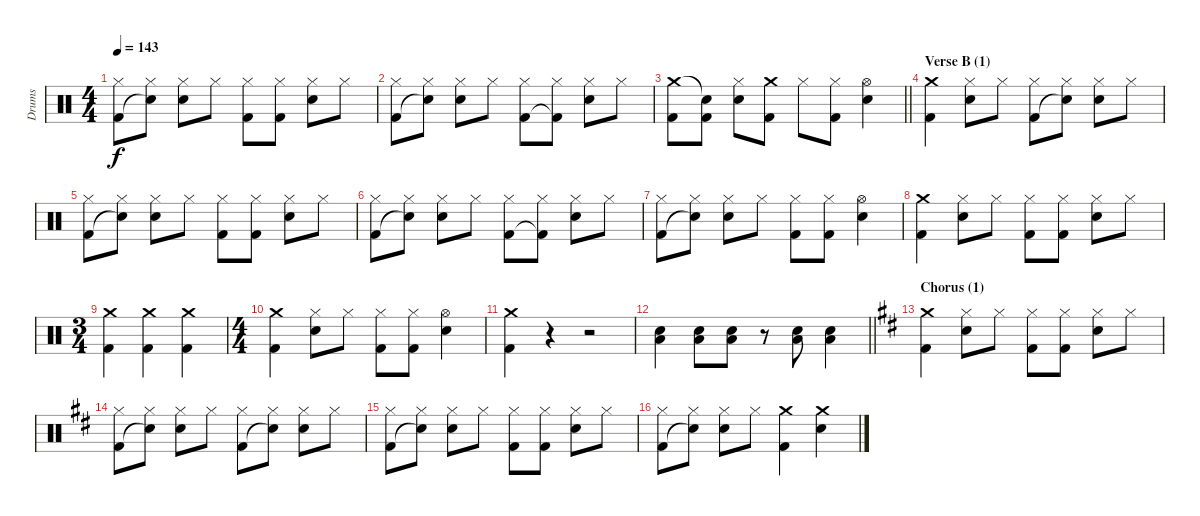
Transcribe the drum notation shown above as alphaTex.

\track ("Drums" "Drums") {instrument percussion}
\staff {score}
\articulation defaults
\ts (4 4)
\tempo 143
\clef neutral
\ks aminor
("Hi-Hat (closed)" "Kick (hit) 2").8{dy f} ("Hi-Hat (closed)" "Snare (hit)"{t}).8 ("Hi-Hat (closed)" "Electric Snare (hit)").8 "Hi-Hat (closed)".8 ("Hi-Hat (closed)" "Kick (hit) 2").8 ("Hi-Hat (closed)" "Kick (hit) 2").8 ("Hi-Hat (closed)" "Electric Snare (hit)").8 "Hi-Hat (closed)".8 |
("Hi-Hat (closed)" "Kick (hit) 2").8 ("Hi-Hat (closed)" "Snare (hit)"{t}).8 ("Hi-Hat (closed)" "Electric Snare (hit)").8 "Hi-Hat (closed)".8 ("Hi-Hat (closed)" "Kick (hit) 2").8 ("Hi-Hat (closed)" "Kick (hit) 2"{t}).8 ("Hi-Hat (closed)" "Electric Snare (hit)").8 "Hi-Hat (closed)".8 |
\barLineRight lightlight
("Crash medium (hit)" "Kick (hit) 2").8 ("Snare (hit)"{t} "Kick (hit) 2").8 ("Hi-Hat (closed)" "Electric Snare (hit)").8 ("Crash medium (hit)" "Kick (hit) 2").8 "Hi-Hat (closed)".8 ("Hi-Hat (closed)" "Kick (hit) 2").8 ("Hi-Hat (open)" "Electric Snare (hit)").4 |
\section ("" "Verse B (1)")
("Crash medium (hit)" "Kick (hit) 2").4 ("Hi-Hat (closed)" "Electric Snare (hit)").8 "Hi-Hat (closed)".8 ("Hi-Hat (closed)" "Kick (hit) 2").8 ("Hi-Hat (closed)" "Snare (hit)"{t}).8 ("Hi-Hat (closed)" "Electric Snare (hit)").8 "Hi-Hat (closed)".8 |
("Hi-Hat (closed)" "Kick (hit) 2").8 ("Hi-Hat (closed)" "Snare (hit)"{t}).8 ("Hi-Hat (closed)" "Electric Snare (hit)").8 "Hi-Hat (closed)".8 ("Hi-Hat (closed)" "Kick (hit) 2").8 ("Hi-Hat (closed)" "Kick (hit) 2").8 ("Hi-Hat (closed)" "Electric Snare (hit)").8 "Hi-Hat (closed)".8 |
("Hi-Hat (closed)" "Kick (hit) 2").8 ("Hi-Hat (closed)" "Snare (hit)"{t}).8 ("Hi-Hat (closed)" "Electric Snare (hit)").8 "Hi-Hat (closed)".8 ("Hi-Hat (closed)" "Kick (hit) 2").8 ("Hi-Hat (closed)" "Kick (hit) 2"{t}).8 ("Hi-Hat (closed)" "Electric Snare (hit)").8 "Hi-Hat (closed)".8 |
("Hi-Hat (closed)" "Kick (hit) 2").8 ("Hi-Hat (closed)" "Snare (hit)"{t}).8 ("Hi-Hat (closed)" "Electric Snare (hit)").8 "Hi-Hat (closed)".8 ("Hi-Hat (closed)" "Kick (hit) 2").8 ("Hi-Hat (closed)" "Kick (hit) 2").8 ("Hi-Hat (open)" "Electric Snare (hit)").4 |
("Crash medium (hit)" "Kick (hit) 2").4 ("Hi-Hat (closed)" "Electric Snare (hit)").8 "Hi-Hat (closed)".8 ("Hi-Hat (closed)" "Kick (hit) 2").8 ("Hi-Hat (closed)" "Kick (hit) 2").8 ("Hi-Hat (closed)" "Electric Snare (hit)").8 "Hi-Hat (closed)".8 |
\ts (3 4)
("Crash medium (hit)" "Kick (hit) 2").4 ("Crash medium (hit)" "Kick (hit) 2").4 ("Crash medium (hit)" "Kick (hit) 2").4 |
\ts (4 4)
("Crash medium (hit)" "Kick (hit) 2").4 ("Hi-Hat (closed)" "Electric Snare (hit)").8 "Hi-Hat (closed)".8 ("Hi-Hat (closed)" "Kick (hit) 2").8 ("Hi-Hat (closed)" "Kick (hit) 2").8 ("Hi-Hat (open)" "Electric Snare (hit)").4 |
("Crash medium (hit)" "Kick (hit) 2").4 r.4 r.2 |
\barLineRight lightlight
("Electric Snare (hit)" "Low Floor Tom (hit)").4 ("Electric Snare (hit)" "Low Floor Tom (hit)").8 ("Electric Snare (hit)" "Low Floor Tom (hit)").8 r.8 ("Electric Snare (hit)" "Low Floor Tom (hit)").8 ("Electric Snare (hit)" "Low Floor Tom (hit)").4 |
\section ("" "Chorus (1)")
\ks d
("Crash medium (hit)" "Kick (hit) 2").4 ("Hi-Hat (closed)" "Electric Snare (hit)").8 "Hi-Hat (closed)".8 ("Hi-Hat (closed)" "Kick (hit) 2").8 ("Hi-Hat (closed)" "Kick (hit) 2").8 ("Hi-Hat (closed)" "Electric Snare (hit)").8 "Hi-Hat (closed)".8 |
("Hi-Hat (closed)" "Kick (hit) 2").8 ("Hi-Hat (closed)" "Snare (hit)"{t}).8 ("Hi-Hat (closed)" "Electric Snare (hit)").8 "Hi-Hat (closed)".8 ("Hi-Hat (closed)" "Kick (hit) 2").8 ("Hi-Hat (closed)" "Snare (hit)"{t}).8 ("Hi-Hat (closed)" "Electric Snare (hit)").8 "Hi-Hat (closed)".8 |
("Hi-Hat (closed)" "Kick (hit) 2").8 ("Hi-Hat (closed)" "Snare (hit)"{t}).8 ("Hi-Hat (closed)" "Electric Snare (hit)").8 "Hi-Hat (closed)".8 ("Hi-Hat (closed)" "Kick (hit) 2").8 ("Hi-Hat (closed)" "Kick (hit) 2").8 ("Hi-Hat (closed)" "Electric Snare (hit)").8 "Hi-Hat (closed)".8 |
("Hi-Hat (closed)" "Kick (hit) 2").8 ("Hi-Hat (closed)" "Snare (hit)"{t}).8 ("Hi-Hat (closed)" "Electric Snare (hit)").8 "Hi-Hat (closed)".8 ("Crash medium (hit)" "Kick (hit) 2").4 ("Crash medium (hit)" "Electric Snare (hit)").4
